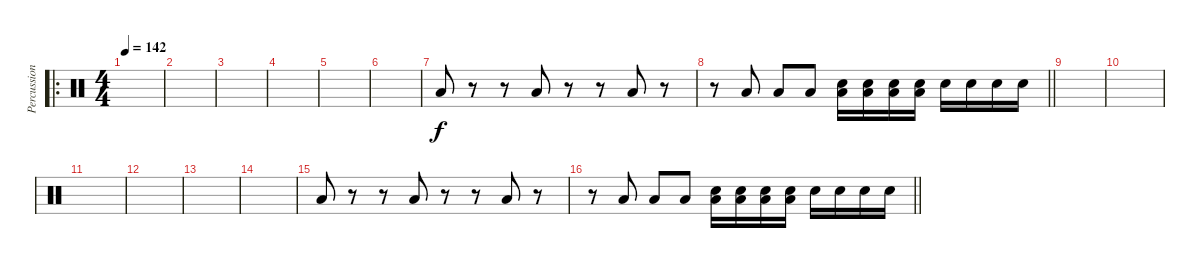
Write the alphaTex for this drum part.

\track ("Percussion" "Percussion") {instrument percussion}
\staff {score}
\articulation defaults
\ro
\ts (4 4)
\tempo 142
\clef neutral
\ks c
|
|
|
|
|
|
"Low Tom (hit)".8 r.8 r.8 "Low Tom (hit)".8 r.8 r.8 "Low Tom (hit)".8 r.8 |
\barLineRight lightlight
r.8 "Low Tom (hit)".8 "Low Tom (hit)".8 "Low Tom (hit)".8 ("Low Tom (hit)" "Snare (hit) 2").16 ("Low Tom (hit)" "Snare (hit) 2").16 ("Low Tom (hit)" "Snare (hit) 2").16 ("Low Tom (hit)" "Snare (hit) 2").16 "Snare (hit) 2".16 "Snare (hit) 2".16 "Snare (hit) 2".16 "Snare (hit) 2".16 |
|
|
|
|
|
|
"Low Tom (hit)".8 r.8 r.8 "Low Tom (hit)".8 r.8 r.8 "Low Tom (hit)".8 r.8 |
\barLineRight lightlight
r.8 "Low Tom (hit)".8 "Low Tom (hit)".8 "Low Tom (hit)".8 ("Low Tom (hit)" "Snare (hit) 2").16 ("Low Tom (hit)" "Snare (hit) 2").16 ("Low Tom (hit)" "Snare (hit) 2").16 ("Low Tom (hit)" "Snare (hit) 2").16 "Snare (hit) 2".16 "Snare (hit) 2".16 "Snare (hit) 2".16 "Snare (hit) 2".16
